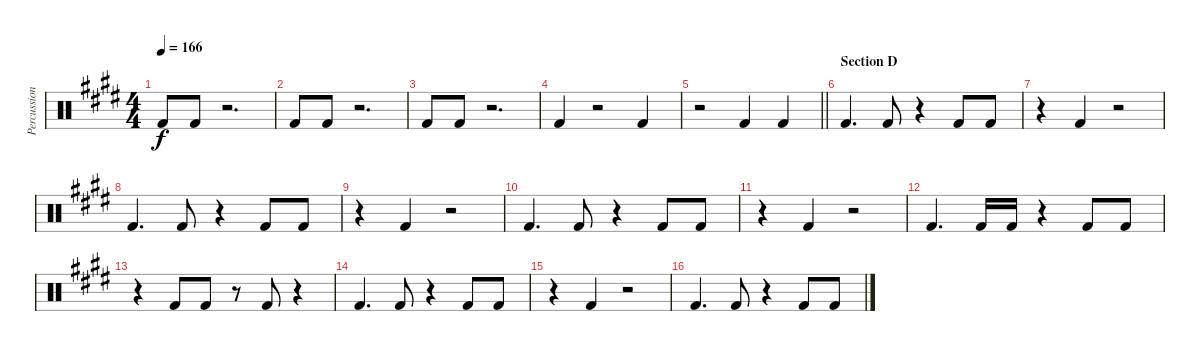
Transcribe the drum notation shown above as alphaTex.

\track ("Percussion - Other Again" "Percussion") {instrument percussion}
\staff {score}
\articulation defaults
\ts (4 4)
\tempo 166
\clef neutral
\ks e "Kick (hit) 2".8{dy f} "Kick (hit) 2".8
r.2{d} |
"Kick (hit) 2".8 "Kick (hit) 2".8 r.2{d} |
"Kick (hit) 2".8 "Kick (hit) 2".8 r.2{d} |
"Kick (hit) 2".4 r.2 "Kick (hit) 2".4 |
\barLineRight lightlight
r.2 "Kick (hit) 2".4 "Kick (hit) 2".4 |
\section ("" "Section D")
"Kick (hit) 2".4{d} "Kick (hit) 2".8 r.4 "Kick (hit) 2".8 "Kick (hit) 2".8 |
r.4 "Kick (hit) 2".4 r.2 |
"Kick (hit) 2".4{d} "Kick (hit) 2".8 r.4 "Kick (hit) 2".8 "Kick (hit) 2".8 |
r.4 "Kick (hit) 2".4 r.2 |
"Kick (hit) 2".4{d} "Kick (hit) 2".8 r.4 "Kick (hit) 2".8 "Kick (hit) 2".8 |
r.4 "Kick (hit) 2".4 r.2 |
"Kick (hit) 2".4{d} "Kick (hit) 2".16 "Kick (hit) 2".16 r.4 "Kick (hit) 2".8 "Kick (hit) 2".8 |
r.4 "Kick (hit) 2".8 "Kick (hit) 2".8 r.8 "Kick (hit) 2".8 r.4 |
"Kick (hit) 2".4{d} "Kick (hit) 2".8 r.4 "Kick (hit) 2".8 "Kick (hit) 2".8 |
r.4 "Kick (hit) 2".4 r.2 |
"Kick (hit) 2".4{d} "Kick (hit) 2".8 r.4 "Kick (hit) 2".8 "Kick (hit) 2".8
